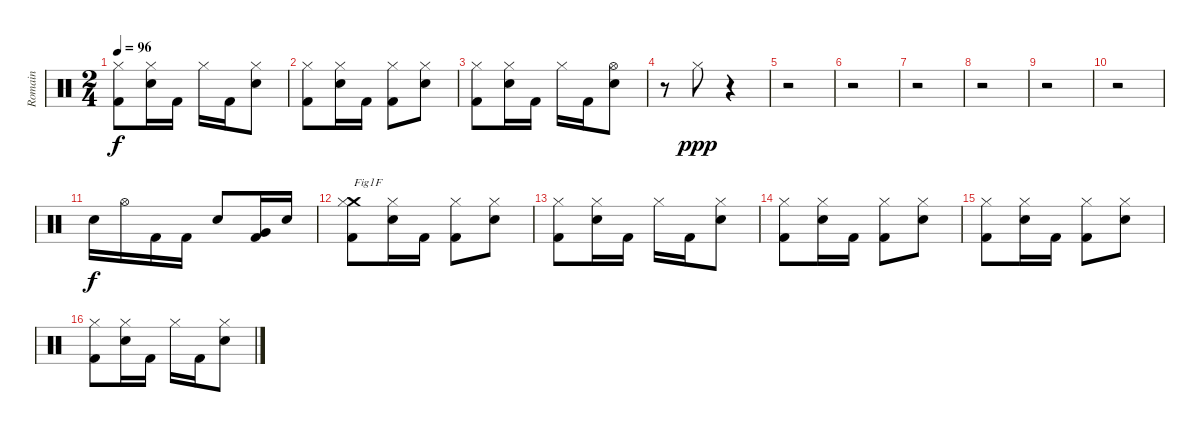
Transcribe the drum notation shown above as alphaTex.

\track ("Romain" "Romain") {instrument percussion}
\staff {score}
\articulation defaults
\ts (2 4)
\tempo 96
\clef neutral
\ks c
("Kick (hit) 2" "Hi-Hat (closed)").8{dy f} ("Electric Snare (hit)" "Hi-Hat (closed)").16 "Kick (hit) 2".16 "Hi-Hat (closed)".16 "Kick (hit) 2".16 ("Electric Snare (hit)" "Hi-Hat (closed)").8 |
("Kick (hit) 2" "Hi-Hat (closed)").8 ("Electric Snare (hit)" "Hi-Hat (closed)").16 "Kick (hit) 2".16 ("Kick (hit) 2" "Hi-Hat (closed)").8 ("Electric Snare (hit)" "Hi-Hat (closed)").8 |
("Kick (hit) 2" "Hi-Hat (closed)").8 ("Electric Snare (hit)" "Hi-Hat (closed)").16 "Kick (hit) 2".16 "Hi-Hat (closed)".16 "Kick (hit) 2".16 ("Electric Snare (hit)" "Hi-Hat (open)").8 |
r.8 "Hi-Hat (closed)".8{dy ppp} r.4 |
r.2 |
r.2 |
r.2 |
r.2 |
r.2 |
r.2 |
"Electric Snare (hit)".16{dy f} "Hi-Hat (open)".16 "Kick (hit) 2".16 "Kick (hit) 2".16 "Electric Snare (hit)".8 ("Kick (hit) 2" "Very Low Tom (hit)").16 "Electric Snare (hit)".16 |
("Kick (hit) 2" "Crash medium (hit)" "Hi-Hat (closed)").8{txt "Fig1F"} ("Electric Snare (hit)" "Hi-Hat (closed)").16 "Kick (hit) 2".16 ("Kick (hit) 2" "Hi-Hat (closed)").8 ("Electric Snare (hit)" "Hi-Hat (closed)").8 |
("Kick (hit) 2" "Hi-Hat (closed)").8 ("Electric Snare (hit)" "Hi-Hat (closed)").16 "Kick (hit) 2".16 "Hi-Hat (closed)".16 "Kick (hit) 2".16 ("Electric Snare (hit)" "Hi-Hat (closed)").8 |
("Kick (hit) 2" "Hi-Hat (closed)").8 ("Electric Snare (hit)" "Hi-Hat (closed)").16 "Kick (hit) 2".16 ("Kick (hit) 2" "Hi-Hat (closed)").8 ("Electric Snare (hit)" "Hi-Hat (closed)").8 |
("Kick (hit) 2" "Hi-Hat (closed)").8 ("Electric Snare (hit)" "Hi-Hat (closed)").16 "Kick (hit) 2".16 ("Kick (hit) 2" "Hi-Hat (closed)").8 ("Electric Snare (hit)" "Hi-Hat (closed)").8 |
("Kick (hit) 2" "Hi-Hat (closed)").8 ("Electric Snare (hit)" "Hi-Hat (closed)").16 "Kick (hit) 2".16 "Hi-Hat (closed)".16 "Kick (hit) 2".16 ("Electric Snare (hit)" "Hi-Hat (closed)").8
